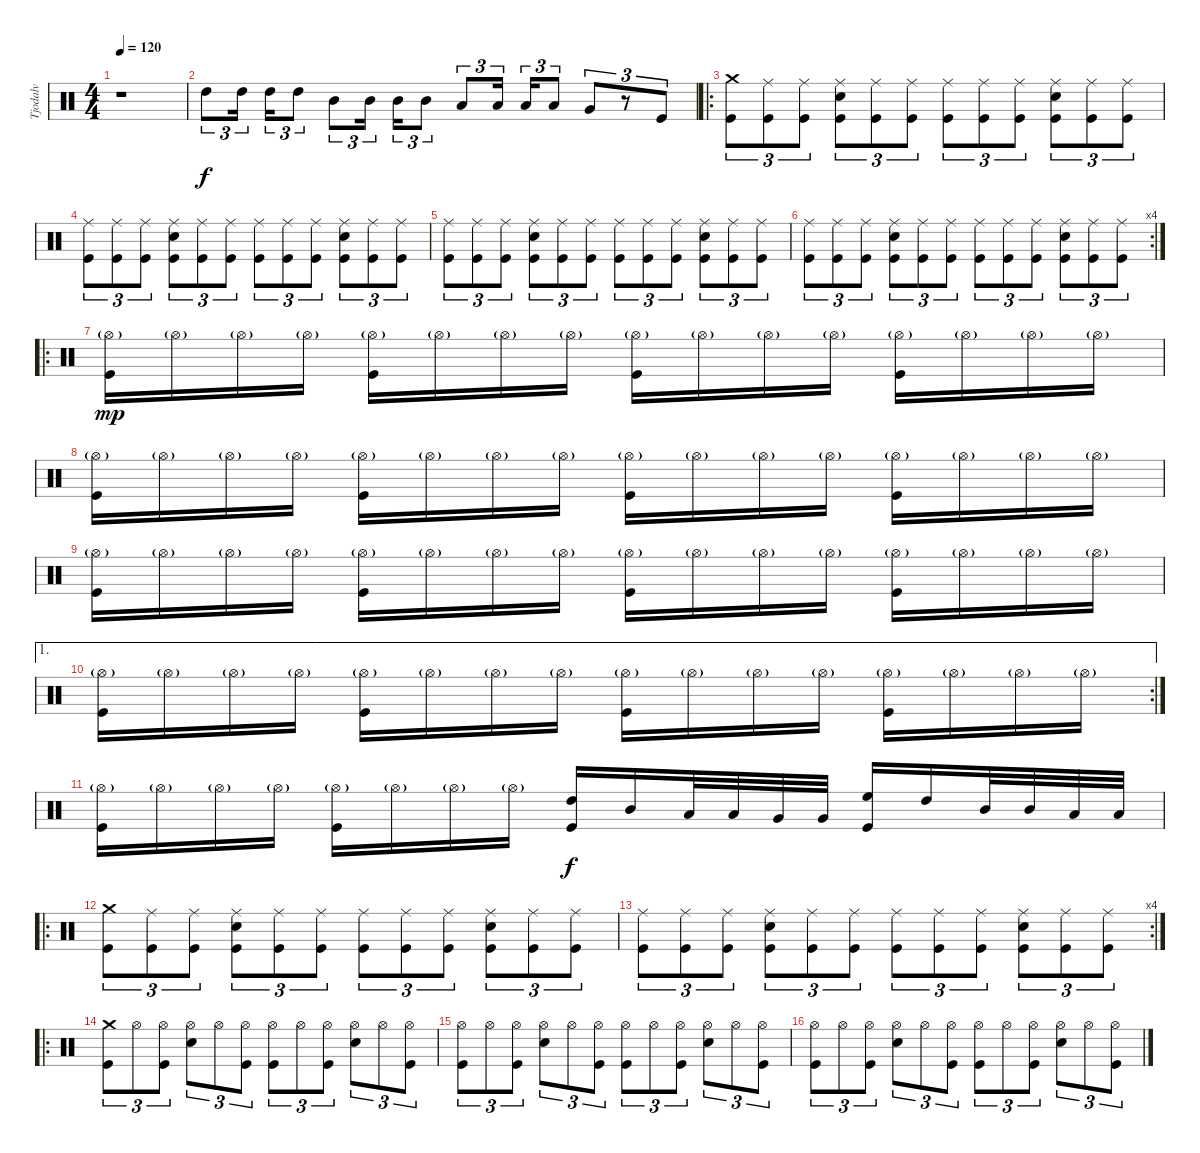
\track ("Tjodalv" "Tjodalv") {instrument percussion}
\staff {score}
\articulation defaults
\ts (4 4)
\tempo 120
\clef neutral
\ks c
r.1{dy f} |
"High Tom (hit)".8{tu (3 2)} "High Tom (hit)".16{tu (3 2)} "High Tom (hit)".16{tu (3 2)} "High Tom (hit)".8{tu (3 2)} "Mid Tom (hit)".8{tu (3 2)} "Mid Tom (hit)".16{tu (3 2)} "Mid Tom (hit)".16{tu (3 2)} "Mid Tom (hit)".8{tu (3 2)} "Low Tom (hit)".8{tu (3 2)} "Low Tom (hit)".16{tu (3 2)} "Low Tom (hit)".16{tu (3 2)} "Low Tom (hit)".8{tu (3 2)} "Very Low Tom (hit)".8{tu (3 2)} r.8{tu (3 2)} "Kick (hit)".8{tu (3 2)} |
\ro
("Crash medium (hit)" "Kick (hit)").8{tu (3 2)} ("Ride (middle)" "Kick (hit)").8{tu (3 2)} ("Ride (middle)" "Kick (hit)").8{tu (3 2)} ("Snare (hit) 2" "Ride (middle)" "Kick (hit)").8{tu (3 2)} ("Ride (middle)" "Kick (hit)").8{tu (3 2)} ("Ride (middle)" "Kick (hit)").8{tu (3 2)} ("Ride (middle)" "Kick (hit)").8{tu (3 2)} ("Ride (middle)" "Kick (hit)").8{tu (3 2)} ("Ride (middle)" "Kick (hit)").8{tu (3 2)} ("Snare (hit) 2" "Ride (middle)" "Kick (hit)").8{tu (3 2)} ("Ride (middle)" "Kick (hit)").8{tu (3 2)} ("Ride (middle)" "Kick (hit)").8{tu (3 2)} |
("Ride (middle)" "Kick (hit)").8{tu (3 2)} ("Ride (middle)" "Kick (hit)").8{tu (3 2)} ("Ride (middle)" "Kick (hit)").8{tu (3 2)} ("Snare (hit) 2" "Ride (middle)" "Kick (hit)").8{tu (3 2)} ("Ride (middle)" "Kick (hit)").8{tu (3 2)} ("Ride (middle)" "Kick (hit)").8{tu (3 2)} ("Ride (middle)" "Kick (hit)").8{tu (3 2)} ("Ride (middle)" "Kick (hit)").8{tu (3 2)} ("Ride (middle)" "Kick (hit)").8{tu (3 2)} ("Snare (hit) 2" "Ride (middle)" "Kick (hit)").8{tu (3 2)} ("Ride (middle)" "Kick (hit)").8{tu (3 2)} ("Ride (middle)" "Kick (hit)").8{tu (3 2)} |
("Ride (middle)" "Kick (hit)").8{tu (3 2)} ("Ride (middle)" "Kick (hit)").8{tu (3 2)} ("Ride (middle)" "Kick (hit)").8{tu (3 2)} ("Snare (hit) 2" "Ride (middle)" "Kick (hit)").8{tu (3 2)} ("Ride (middle)" "Kick (hit)").8{tu (3 2)} ("Ride (middle)" "Kick (hit)").8{tu (3 2)} ("Ride (middle)" "Kick (hit)").8{tu (3 2)} ("Ride (middle)" "Kick (hit)").8{tu (3 2)} ("Ride (middle)" "Kick (hit)").8{tu (3 2)} ("Snare (hit) 2" "Ride (middle)" "Kick (hit)").8{tu (3 2)} ("Ride (middle)" "Kick (hit)").8{tu (3 2)} ("Ride (middle)" "Kick (hit)").8{tu (3 2)} |
\rc 4
("Ride (middle)" "Kick (hit)").8{tu (3 2)} ("Ride (middle)" "Kick (hit)").8{tu (3 2)} ("Ride (middle)" "Kick (hit)").8{tu (3 2)} ("Snare (hit) 2" "Ride (middle)" "Kick (hit)").8{tu (3 2)} ("Ride (middle)" "Kick (hit)").8{tu (3 2)} ("Ride (middle)" "Kick (hit)").8{tu (3 2)} ("Ride (middle)" "Kick (hit)").8{tu (3 2)} ("Ride (middle)" "Kick (hit)").8{tu (3 2)} ("Ride (middle)" "Kick (hit)").8{tu (3 2)} ("Snare (hit) 2" "Ride (middle)" "Kick (hit)").8{tu (3 2)} ("Ride (middle)" "Kick (hit)").8{tu (3 2)} ("Ride (middle)" "Kick (hit)").8{tu (3 2)} |
\ro
("Hi-Hat (open)"{g} "Kick (hit)").16{dy mp} "Hi-Hat (open)"{g}.16 "Hi-Hat (open)"{g}.16 "Hi-Hat (open)"{g}.16 ("Hi-Hat (open)"{g} "Kick (hit)").16 "Hi-Hat (open)"{g}.16 "Hi-Hat (open)"{g}.16 "Hi-Hat (open)"{g}.16 ("Hi-Hat (open)"{g} "Kick (hit)").16 "Hi-Hat (open)"{g}.16 "Hi-Hat (open)"{g}.16 "Hi-Hat (open)"{g}.16 ("Hi-Hat (open)"{g} "Kick (hit)").16 "Hi-Hat (open)"{g}.16 "Hi-Hat (open)"{g}.16 "Hi-Hat (open)"{g}.16 |
("Hi-Hat (open)"{g} "Kick (hit)").16 "Hi-Hat (open)"{g}.16 "Hi-Hat (open)"{g}.16 "Hi-Hat (open)"{g}.16 ("Hi-Hat (open)"{g} "Kick (hit)").16 "Hi-Hat (open)"{g}.16 "Hi-Hat (open)"{g}.16 "Hi-Hat (open)"{g}.16 ("Hi-Hat (open)"{g} "Kick (hit)").16 "Hi-Hat (open)"{g}.16 "Hi-Hat (open)"{g}.16 "Hi-Hat (open)"{g}.16 ("Hi-Hat (open)"{g} "Kick (hit)").16 "Hi-Hat (open)"{g}.16 "Hi-Hat (open)"{g}.16 "Hi-Hat (open)"{g}.16 |
("Hi-Hat (open)"{g} "Kick (hit)").16 "Hi-Hat (open)"{g}.16 "Hi-Hat (open)"{g}.16 "Hi-Hat (open)"{g}.16 ("Hi-Hat (open)"{g} "Kick (hit)").16 "Hi-Hat (open)"{g}.16 "Hi-Hat (open)"{g}.16 "Hi-Hat (open)"{g}.16 ("Hi-Hat (open)"{g} "Kick (hit)").16 "Hi-Hat (open)"{g}.16 "Hi-Hat (open)"{g}.16 "Hi-Hat (open)"{g}.16 ("Hi-Hat (open)"{g} "Kick (hit)").16 "Hi-Hat (open)"{g}.16 "Hi-Hat (open)"{g}.16 "Hi-Hat (open)"{g}.16 |
\ae 1
\rc 2
("Hi-Hat (open)"{g} "Kick (hit)").16 "Hi-Hat (open)"{g}.16 "Hi-Hat (open)"{g}.16 "Hi-Hat (open)"{g}.16 ("Hi-Hat (open)"{g} "Kick (hit)").16 "Hi-Hat (open)"{g}.16 "Hi-Hat (open)"{g}.16 "Hi-Hat (open)"{g}.16 ("Hi-Hat (open)"{g} "Kick (hit)").16 "Hi-Hat (open)"{g}.16 "Hi-Hat (open)"{g}.16 "Hi-Hat (open)"{g}.16 ("Hi-Hat (open)"{g} "Kick (hit)").16 "Hi-Hat (open)"{g}.16 "Hi-Hat (open)"{g}.16 "Hi-Hat (open)"{g}.16 |
("Hi-Hat (open)"{g} "Kick (hit)").16 "Hi-Hat (open)"{g}.16 "Hi-Hat (open)"{g}.16 "Hi-Hat (open)"{g}.16 ("Hi-Hat (open)"{g} "Kick (hit)").16 "Hi-Hat (open)"{g}.16 "Hi-Hat (open)"{g}.16 "Hi-Hat (open)"{g}.16 ("High Tom (hit)" "Kick (hit)").16{dy f} "Mid Tom (hit)".16 "Low Tom (hit)".32 "Low Tom (hit)".32 "Very Low Tom (hit)".32 "Very Low Tom (hit)".32 ("High Floor Tom (hit)" "Kick (hit)").16 "High Tom (hit)".16 "Mid Tom (hit)".32 "Mid Tom (hit)".32 "Low Tom (hit)".32 "Low Tom (hit)".32 |
\ro
("Crash medium (hit)" "Kick (hit)").8{tu (3 2)} ("Ride (middle)" "Kick (hit)").8{tu (3 2)} ("Ride (middle)" "Kick (hit)").8{tu (3 2)} ("Snare (hit) 2" "Ride (middle)" "Kick (hit)").8{tu (3 2)} ("Ride (middle)" "Kick (hit)").8{tu (3 2)} ("Ride (middle)" "Kick (hit)").8{tu (3 2)} ("Ride (middle)" "Kick (hit)").8{tu (3 2)} ("Ride (middle)" "Kick (hit)").8{tu (3 2)} ("Ride (middle)" "Kick (hit)").8{tu (3 2)} ("Snare (hit) 2" "Ride (middle)" "Kick (hit)").8{tu (3 2)} ("Ride (middle)" "Kick (hit)").8{tu (3 2)} ("Ride (middle)" "Kick (hit)").8{tu (3 2)} |
\rc 4
("Ride (middle)" "Kick (hit)").8{tu (3 2)} ("Ride (middle)" "Kick (hit)").8{tu (3 2)} ("Ride (middle)" "Kick (hit)").8{tu (3 2)} ("Snare (hit) 2" "Ride (middle)" "Kick (hit)").8{tu (3 2)} ("Ride (middle)" "Kick (hit)").8{tu (3 2)} ("Ride (middle)" "Kick (hit)").8{tu (3 2)} ("Ride (middle)" "Kick (hit)").8{tu (3 2)} ("Ride (middle)" "Kick (hit)").8{tu (3 2)} ("Ride (middle)" "Kick (hit)").8{tu (3 2)} ("Snare (hit) 2" "Ride (middle)" "Kick (hit)").8{tu (3 2)} ("Ride (middle)" "Kick (hit)").8{tu (3 2)} ("Ride (middle)" "Kick (hit)").8{tu (3 2)} |
\ro
("Crash medium (hit)" "Kick (hit)").8{tu (3 2)} "Hi-Hat (open)".8{tu (3 2)} ("Hi-Hat (open)" "Kick (hit)").8{tu (3 2)} ("Snare (hit) 2" "Hi-Hat (open)").8{tu (3 2)} "Hi-Hat (open)".8{tu (3 2)} ("Hi-Hat (open)" "Kick (hit)").8{tu (3 2)} ("Hi-Hat (open)" "Kick (hit)").8{tu (3 2)} "Hi-Hat (open)".8{tu (3 2)} ("Hi-Hat (open)" "Kick (hit)").8{tu (3 2)} ("Snare (hit) 2" "Hi-Hat (open)").8{tu (3 2)} "Hi-Hat (open)".8{tu (3 2)} ("Hi-Hat (open)" "Kick (hit)").8{tu (3 2)} |
("Hi-Hat (open)" "Kick (hit)").8{tu (3 2)} "Hi-Hat (open)".8{tu (3 2)} ("Hi-Hat (open)" "Kick (hit)").8{tu (3 2)} ("Snare (hit) 2" "Hi-Hat (open)").8{tu (3 2)} "Hi-Hat (open)".8{tu (3 2)} ("Hi-Hat (open)" "Kick (hit)").8{tu (3 2)} ("Hi-Hat (open)" "Kick (hit)").8{tu (3 2)} "Hi-Hat (open)".8{tu (3 2)} ("Hi-Hat (open)" "Kick (hit)").8{tu (3 2)} ("Snare (hit) 2" "Hi-Hat (open)").8{tu (3 2)} "Hi-Hat (open)".8{tu (3 2)} ("Hi-Hat (open)" "Kick (hit)").8{tu (3 2)} |
("Hi-Hat (open)" "Kick (hit)").8{tu (3 2)} "Hi-Hat (open)".8{tu (3 2)} ("Hi-Hat (open)" "Kick (hit)").8{tu (3 2)} ("Snare (hit) 2" "Hi-Hat (open)").8{tu (3 2)} "Hi-Hat (open)".8{tu (3 2)} ("Hi-Hat (open)" "Kick (hit)").8{tu (3 2)} ("Hi-Hat (open)" "Kick (hit)").8{tu (3 2)} "Hi-Hat (open)".8{tu (3 2)} ("Hi-Hat (open)" "Kick (hit)").8{tu (3 2)} ("Snare (hit) 2" "Hi-Hat (open)").8{tu (3 2)} "Hi-Hat (open)".8{tu (3 2)} ("Hi-Hat (open)" "Kick (hit)").8{tu (3 2)}
